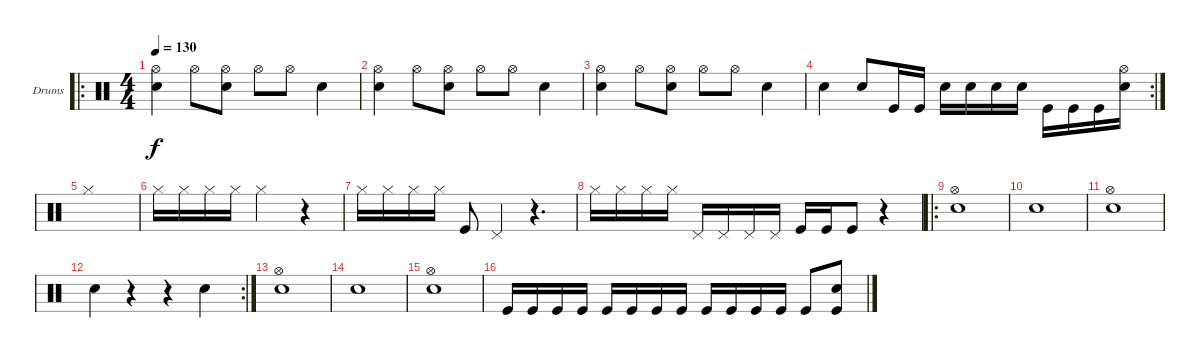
\defaultSystemsLayout 4
\bracketExtendMode groupsimilarinstruments
\firstSystemTrackNameOrientation horizontal
\otherSystemsTrackNameOrientation horizontal
\track ("Барабаны1" "Drums") {instrument percussion}
\staff {score}
\articulation defaults
\ro
\ts (4 4)
\tempo 130
\clef neutral
\ks c
("Snare (hit) 2" "Hi-Hat (open)").4{dy f} "Hi-Hat (open)".8 ("Hi-Hat (open)" "Snare (hit) 2").8 "Hi-Hat (open)".8 "Hi-Hat (open)".8 "Snare (hit) 2".4 |
("Snare (hit) 2" "Hi-Hat (open)").4 "Hi-Hat (open)".8 ("Hi-Hat (open)" "Snare (hit) 2").8 "Hi-Hat (open)".8 "Hi-Hat (open)".8 "Snare (hit) 2".4 |
("Snare (hit) 2" "Hi-Hat (open)").4 "Hi-Hat (open)".8 ("Hi-Hat (open)" "Snare (hit) 2").8 "Hi-Hat (open)".8 "Hi-Hat (open)".8 "Snare (hit) 2".4 |
\rc 2 "Snare (hit) 2".4 "Snare (hit) 2".8 "Kick (hit)".16 "Kick (hit)".16 "Snare (hit) 2".16 "Snare (hit) 2".16 "Snare (hit) 2".16 "Snare (hit) 2".16 "Kick (hit)".16 "Kick (hit)".16 "Kick (hit)".16
("Snare (hit) 2" "Hi-Hat (open)").16 |
"Hi-Hat (closed)".1 |
"Hi-Hat (closed)".16 "Hi-Hat (closed)".16 "Hi-Hat (closed)".16 "Hi-Hat (closed)".16 "Hi-Hat (closed)".2 r.4 |
"Hi-Hat (closed)".16 "Hi-Hat (closed)".16 "Hi-Hat (closed)".16 "Hi-Hat (closed)".16 "Kick (hit)".8 "Pedal Hi-Hat (hit)".4 r.4{d} |
"Hi-Hat (closed)".16 "Hi-Hat (closed)".16 "Hi-Hat (closed)".16 "Hi-Hat (closed)".16 "Pedal Hi-Hat (hit)".16 "Pedal Hi-Hat (hit)".16 "Pedal Hi-Hat (hit)".16 "Pedal Hi-Hat (hit)".16 "Kick (hit)".16 "Kick (hit)".16 "Kick (hit)".8 r.4 |
\ro
("Snare (hit) 2" "Hi-Hat (open)").1 |
"Snare (hit) 2".1 |
("Snare (hit) 2" "Hi-Hat (open)").1 |
\rc 2 "Snare (hit) 2".4
r.4 r.4 "Snare (hit) 2".4 |
("Snare (hit) 2" "Hi-Hat (open)").1 |
"Snare (hit) 2".1 |
("Snare (hit) 2" "Hi-Hat (open)").1 |
"Kick (hit)".16 "Kick (hit)".16 "Kick (hit)".16 "Kick (hit)".16 "Kick (hit)".16 "Kick (hit)".16 "Kick (hit)".16 "Kick (hit)".16 "Kick (hit)".16 "Kick (hit)".16 "Kick (hit)".16 "Kick (hit)".16 "Kick (hit)".8 ("Snare (hit) 2" "Kick (hit)").8
